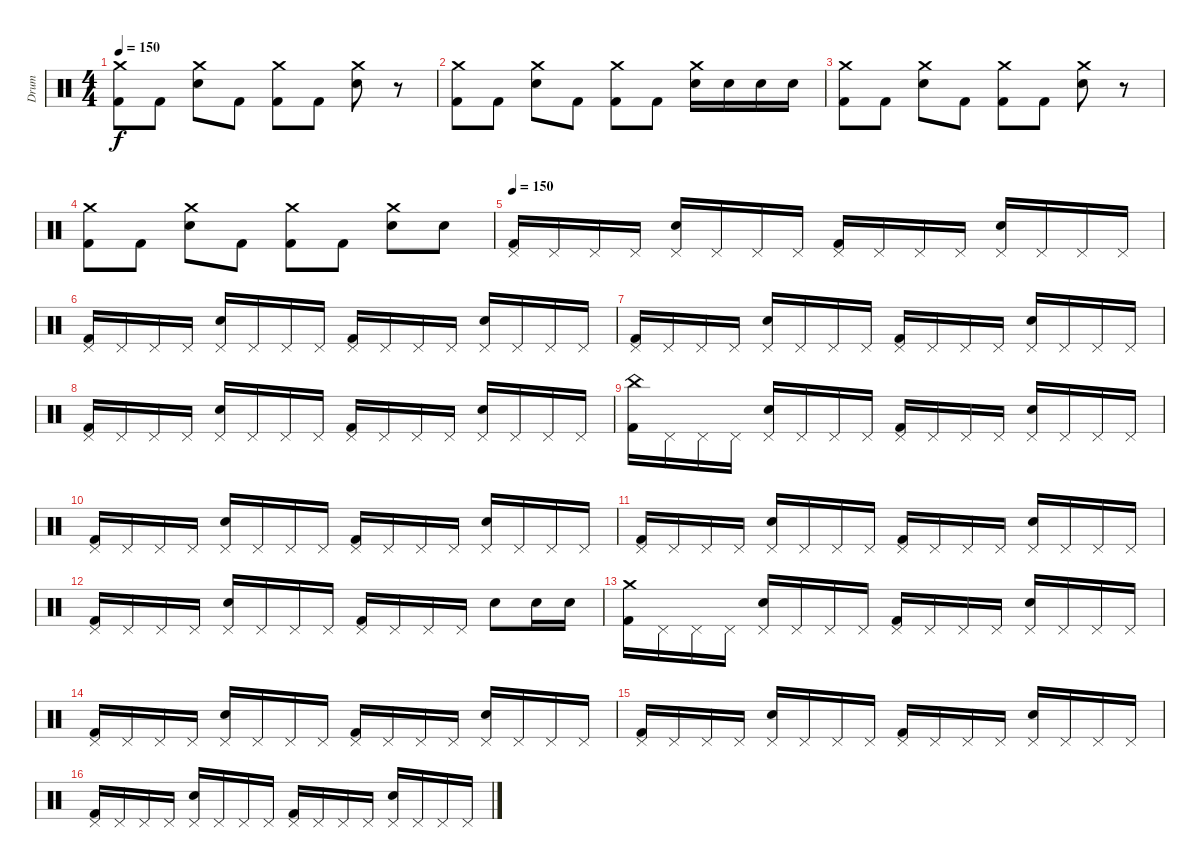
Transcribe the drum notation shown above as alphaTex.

\track ("Drum" "Drum") {instrument percussion}
\staff {score}
\articulation defaults
\ts (4 4)
\tempo 150
\clef neutral
\ks c
("Crash medium (hit)" "Kick (hit) 2").8{dy f} "Kick (hit) 2".8 ("Crash medium (hit)" "Electric Snare (hit)").8 "Kick (hit) 2".8 ("Crash medium (hit)" "Kick (hit) 2").8 "Kick (hit) 2".8 ("Crash medium (hit)" "Electric Snare (hit)").8 r.8 |
("Crash medium (hit)" "Kick (hit) 2").8 "Kick (hit) 2".8 ("Crash medium (hit)" "Electric Snare (hit)").8 "Kick (hit) 2".8 ("Crash medium (hit)" "Kick (hit) 2").8 "Kick (hit) 2".8 ("Crash medium (hit)" "Electric Snare (hit)").16 "Electric Snare (hit)".16 "Electric Snare (hit)".16 "Electric Snare (hit)".16 |
("Crash medium (hit)" "Kick (hit) 2").8 "Kick (hit) 2".8 ("Crash medium (hit)" "Electric Snare (hit)").8 "Kick (hit) 2".8 ("Crash medium (hit)" "Kick (hit) 2").8 "Kick (hit) 2".8 ("Crash medium (hit)" "Electric Snare (hit)").8 r.8 |
("Crash medium (hit)" "Kick (hit) 2").8 "Kick (hit) 2".8 ("Crash medium (hit)" "Electric Snare (hit)").8 "Kick (hit) 2".8 ("Crash medium (hit)" "Kick (hit) 2").8 "Kick (hit) 2".8 ("Crash medium (hit)" "Electric Snare (hit)").8 "Electric Snare (hit)".8 |
\tempo 150
("Pedal Hi-Hat (hit)" "Kick (hit) 2").16 "Pedal Hi-Hat (hit)".16 "Pedal Hi-Hat (hit)".16 "Pedal Hi-Hat (hit)".16 ("Pedal Hi-Hat (hit)" "Electric Snare (hit)").16 "Pedal Hi-Hat (hit)".16 "Pedal Hi-Hat (hit)".16 "Pedal Hi-Hat (hit)".16 ("Pedal Hi-Hat (hit)" "Kick (hit) 2").16 "Pedal Hi-Hat (hit)".16 "Pedal Hi-Hat (hit)".16 "Pedal Hi-Hat (hit)".16 ("Pedal Hi-Hat (hit)" "Electric Snare (hit)").16 "Pedal Hi-Hat (hit)".16 "Pedal Hi-Hat (hit)".16 "Pedal Hi-Hat (hit)".16 |
("Pedal Hi-Hat (hit)" "Kick (hit) 2").16 "Pedal Hi-Hat (hit)".16 "Pedal Hi-Hat (hit)".16 "Pedal Hi-Hat (hit)".16 ("Pedal Hi-Hat (hit)" "Electric Snare (hit)").16 "Pedal Hi-Hat (hit)".16 "Pedal Hi-Hat (hit)".16 "Pedal Hi-Hat (hit)".16 ("Pedal Hi-Hat (hit)" "Kick (hit) 2").16 "Pedal Hi-Hat (hit)".16 "Pedal Hi-Hat (hit)".16 "Pedal Hi-Hat (hit)".16 ("Pedal Hi-Hat (hit)" "Electric Snare (hit)").16 "Pedal Hi-Hat (hit)".16 "Pedal Hi-Hat (hit)".16 "Pedal Hi-Hat (hit)".16 |
("Pedal Hi-Hat (hit)" "Kick (hit) 2").16 "Pedal Hi-Hat (hit)".16 "Pedal Hi-Hat (hit)".16 "Pedal Hi-Hat (hit)".16 ("Pedal Hi-Hat (hit)" "Electric Snare (hit)").16 "Pedal Hi-Hat (hit)".16 "Pedal Hi-Hat (hit)".16 "Pedal Hi-Hat (hit)".16 ("Pedal Hi-Hat (hit)" "Kick (hit) 2").16 "Pedal Hi-Hat (hit)".16 "Pedal Hi-Hat (hit)".16 "Pedal Hi-Hat (hit)".16 ("Pedal Hi-Hat (hit)" "Electric Snare (hit)").16 "Pedal Hi-Hat (hit)".16 "Pedal Hi-Hat (hit)".16 "Pedal Hi-Hat (hit)".16 |
("Pedal Hi-Hat (hit)" "Kick (hit) 2").16 "Pedal Hi-Hat (hit)".16 "Pedal Hi-Hat (hit)".16 "Pedal Hi-Hat (hit)".16 ("Pedal Hi-Hat (hit)" "Electric Snare (hit)").16 "Pedal Hi-Hat (hit)".16 "Pedal Hi-Hat (hit)".16 "Pedal Hi-Hat (hit)".16 ("Pedal Hi-Hat (hit)" "Kick (hit) 2").16 "Pedal Hi-Hat (hit)".16 "Pedal Hi-Hat (hit)".16 "Pedal Hi-Hat (hit)".16 ("Pedal Hi-Hat (hit)" "Electric Snare (hit)").16 "Pedal Hi-Hat (hit)".16 "Pedal Hi-Hat (hit)".16 "Pedal Hi-Hat (hit)".16 |
("China (hit)" "Kick (hit) 2").16 "Pedal Hi-Hat (hit)".16 "Pedal Hi-Hat (hit)".16 "Pedal Hi-Hat (hit)".16 ("Pedal Hi-Hat (hit)" "Electric Snare (hit)").16 "Pedal Hi-Hat (hit)".16 "Pedal Hi-Hat (hit)".16 "Pedal Hi-Hat (hit)".16 ("Pedal Hi-Hat (hit)" "Kick (hit) 2").16 "Pedal Hi-Hat (hit)".16 "Pedal Hi-Hat (hit)".16 "Pedal Hi-Hat (hit)".16 ("Pedal Hi-Hat (hit)" "Electric Snare (hit)").16 "Pedal Hi-Hat (hit)".16 "Pedal Hi-Hat (hit)".16 "Pedal Hi-Hat (hit)".16 |
("Pedal Hi-Hat (hit)" "Kick (hit) 2").16 "Pedal Hi-Hat (hit)".16 "Pedal Hi-Hat (hit)".16 "Pedal Hi-Hat (hit)".16 ("Pedal Hi-Hat (hit)" "Electric Snare (hit)").16 "Pedal Hi-Hat (hit)".16 "Pedal Hi-Hat (hit)".16 "Pedal Hi-Hat (hit)".16 ("Pedal Hi-Hat (hit)" "Kick (hit) 2").16 "Pedal Hi-Hat (hit)".16 "Pedal Hi-Hat (hit)".16 "Pedal Hi-Hat (hit)".16 ("Pedal Hi-Hat (hit)" "Electric Snare (hit)").16 "Pedal Hi-Hat (hit)".16 "Pedal Hi-Hat (hit)".16 "Pedal Hi-Hat (hit)".16 |
("Pedal Hi-Hat (hit)" "Kick (hit) 2").16 "Pedal Hi-Hat (hit)".16 "Pedal Hi-Hat (hit)".16 "Pedal Hi-Hat (hit)".16 ("Pedal Hi-Hat (hit)" "Electric Snare (hit)").16 "Pedal Hi-Hat (hit)".16 "Pedal Hi-Hat (hit)".16 "Pedal Hi-Hat (hit)".16 ("Pedal Hi-Hat (hit)" "Kick (hit) 2").16 "Pedal Hi-Hat (hit)".16 "Pedal Hi-Hat (hit)".16 "Pedal Hi-Hat (hit)".16 ("Pedal Hi-Hat (hit)" "Electric Snare (hit)").16 "Pedal Hi-Hat (hit)".16 "Pedal Hi-Hat (hit)".16 "Pedal Hi-Hat (hit)".16 |
("Pedal Hi-Hat (hit)" "Kick (hit) 2").16 "Pedal Hi-Hat (hit)".16 "Pedal Hi-Hat (hit)".16 "Pedal Hi-Hat (hit)".16 ("Pedal Hi-Hat (hit)" "Electric Snare (hit)").16 "Pedal Hi-Hat (hit)".16 "Pedal Hi-Hat (hit)".16 "Pedal Hi-Hat (hit)".16 ("Pedal Hi-Hat (hit)" "Kick (hit) 2").16 "Pedal Hi-Hat (hit)".16 "Pedal Hi-Hat (hit)".16 "Pedal Hi-Hat (hit)".16 "Electric Snare (hit)".8 "Electric Snare (hit)".16 "Electric Snare (hit)".16 |
("Crash medium (hit)" "Kick (hit) 2").16 "Pedal Hi-Hat (hit)".16 "Pedal Hi-Hat (hit)".16 "Pedal Hi-Hat (hit)".16 ("Pedal Hi-Hat (hit)" "Electric Snare (hit)").16 "Pedal Hi-Hat (hit)".16 "Pedal Hi-Hat (hit)".16 "Pedal Hi-Hat (hit)".16 ("Pedal Hi-Hat (hit)" "Kick (hit) 2").16 "Pedal Hi-Hat (hit)".16 "Pedal Hi-Hat (hit)".16 "Pedal Hi-Hat (hit)".16 ("Pedal Hi-Hat (hit)" "Electric Snare (hit)").16 "Pedal Hi-Hat (hit)".16 "Pedal Hi-Hat (hit)".16 "Pedal Hi-Hat (hit)".16 |
("Pedal Hi-Hat (hit)" "Kick (hit) 2").16 "Pedal Hi-Hat (hit)".16 "Pedal Hi-Hat (hit)".16 "Pedal Hi-Hat (hit)".16 ("Pedal Hi-Hat (hit)" "Electric Snare (hit)").16 "Pedal Hi-Hat (hit)".16 "Pedal Hi-Hat (hit)".16 "Pedal Hi-Hat (hit)".16 ("Pedal Hi-Hat (hit)" "Kick (hit) 2").16 "Pedal Hi-Hat (hit)".16 "Pedal Hi-Hat (hit)".16 "Pedal Hi-Hat (hit)".16 ("Pedal Hi-Hat (hit)" "Electric Snare (hit)").16 "Pedal Hi-Hat (hit)".16 "Pedal Hi-Hat (hit)".16 "Pedal Hi-Hat (hit)".16 |
("Pedal Hi-Hat (hit)" "Kick (hit) 2").16 "Pedal Hi-Hat (hit)".16 "Pedal Hi-Hat (hit)".16 "Pedal Hi-Hat (hit)".16 ("Pedal Hi-Hat (hit)" "Electric Snare (hit)").16 "Pedal Hi-Hat (hit)".16 "Pedal Hi-Hat (hit)".16 "Pedal Hi-Hat (hit)".16 ("Pedal Hi-Hat (hit)" "Kick (hit) 2").16 "Pedal Hi-Hat (hit)".16 "Pedal Hi-Hat (hit)".16 "Pedal Hi-Hat (hit)".16 ("Pedal Hi-Hat (hit)" "Electric Snare (hit)").16 "Pedal Hi-Hat (hit)".16 "Pedal Hi-Hat (hit)".16 "Pedal Hi-Hat (hit)".16 |
("Pedal Hi-Hat (hit)" "Kick (hit) 2").16 "Pedal Hi-Hat (hit)".16 "Pedal Hi-Hat (hit)".16 "Pedal Hi-Hat (hit)".16 ("Pedal Hi-Hat (hit)" "Electric Snare (hit)").16 "Pedal Hi-Hat (hit)".16 "Pedal Hi-Hat (hit)".16 "Pedal Hi-Hat (hit)".16 ("Pedal Hi-Hat (hit)" "Kick (hit) 2").16 "Pedal Hi-Hat (hit)".16 "Pedal Hi-Hat (hit)".16 "Pedal Hi-Hat (hit)".16 ("Pedal Hi-Hat (hit)" "Electric Snare (hit)").16 "Pedal Hi-Hat (hit)".16 "Pedal Hi-Hat (hit)".16 "Pedal Hi-Hat (hit)".16
